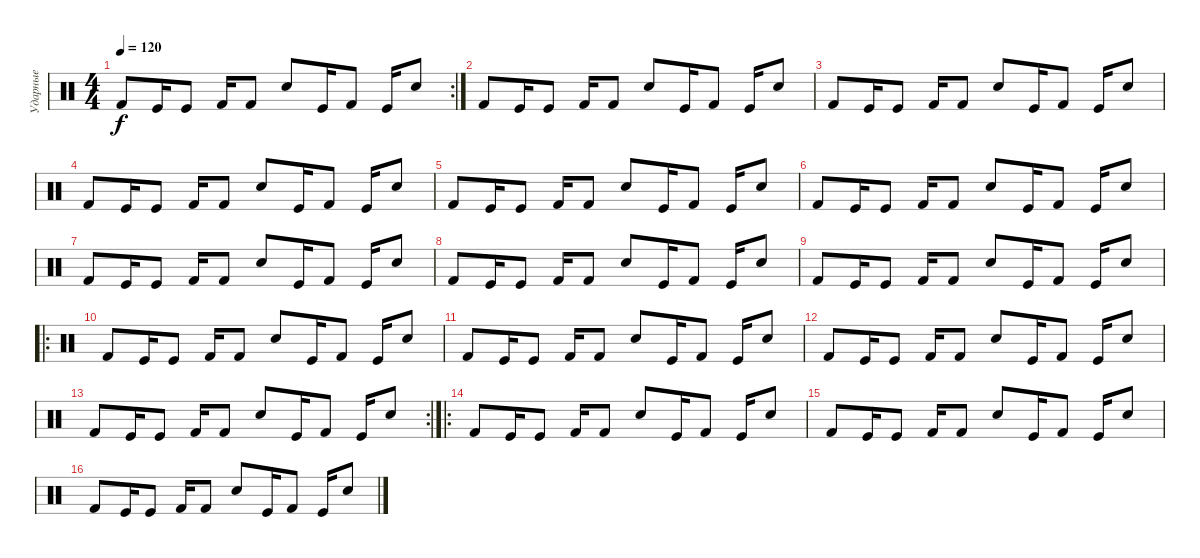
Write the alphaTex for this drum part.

\track ("Ударные" "Ударные") {instrument percussion}
\staff {score}
\articulation defaults
\rc 2
\ts (4 4)
\tempo 120
\clef neutral
\ks c "Kick (hit) 2".8{dy f} "Kick (hit)".16 "Kick (hit)".8 "Kick (hit) 2".16 "Kick (hit) 2".8 "Hand Clap (hit)".8 "Kick (hit)".16 "Kick (hit) 2".8 "Kick (hit)".16 "Snare (hit) 2".8
|
"Kick (hit) 2".8 "Kick (hit)".16 "Kick (hit)".8 "Kick (hit) 2".16 "Kick (hit) 2".8 "Hand Clap (hit)".8 "Kick (hit)".16 "Kick (hit) 2".8 "Kick (hit)".16 "Snare (hit) 2".8 |
"Kick (hit) 2".8 "Kick (hit)".16 "Kick (hit)".8 "Kick (hit) 2".16 "Kick (hit) 2".8 "Hand Clap (hit)".8 "Kick (hit)".16 "Kick (hit) 2".8 "Kick (hit)".16 "Snare (hit) 2".8 |
"Kick (hit) 2".8 "Kick (hit)".16 "Kick (hit)".8 "Kick (hit) 2".16 "Kick (hit) 2".8 "Hand Clap (hit)".8 "Kick (hit)".16 "Kick (hit) 2".8 "Kick (hit)".16 "Snare (hit) 2".8 |
"Kick (hit) 2".8 "Kick (hit)".16 "Kick (hit)".8 "Kick (hit) 2".16 "Kick (hit) 2".8 "Hand Clap (hit)".8 "Kick (hit)".16 "Kick (hit) 2".8 "Kick (hit)".16 "Snare (hit) 2".8 |
"Kick (hit) 2".8 "Kick (hit)".16 "Kick (hit)".8 "Kick (hit) 2".16 "Kick (hit) 2".8 "Hand Clap (hit)".8 "Kick (hit)".16 "Kick (hit) 2".8 "Kick (hit)".16 "Snare (hit) 2".8 |
"Kick (hit) 2".8 "Kick (hit)".16 "Kick (hit)".8 "Kick (hit) 2".16 "Kick (hit) 2".8 "Hand Clap (hit)".8 "Kick (hit)".16 "Kick (hit) 2".8 "Kick (hit)".16 "Snare (hit) 2".8 |
"Kick (hit) 2".8 "Kick (hit)".16 "Kick (hit)".8 "Kick (hit) 2".16 "Kick (hit) 2".8 "Hand Clap (hit)".8 "Kick (hit)".16 "Kick (hit) 2".8 "Kick (hit)".16 "Snare (hit) 2".8 |
"Kick (hit) 2".8 "Kick (hit)".16 "Kick (hit)".8 "Kick (hit) 2".16 "Kick (hit) 2".8 "Hand Clap (hit)".8 "Kick (hit)".16 "Kick (hit) 2".8 "Kick (hit)".16 "Snare (hit) 2".8 |
\ro "Kick (hit) 2".8 "Kick (hit)".16 "Kick (hit)".8 "Kick (hit) 2".16 "Kick (hit) 2".8 "Hand Clap (hit)".8 "Kick (hit)".16 "Kick (hit) 2".8 "Kick (hit)".16 "Snare (hit) 2".8
|
"Kick (hit) 2".8 "Kick (hit)".16 "Kick (hit)".8 "Kick (hit) 2".16 "Kick (hit) 2".8 "Hand Clap (hit)".8 "Kick (hit)".16 "Kick (hit) 2".8 "Kick (hit)".16 "Snare (hit) 2".8 |
"Kick (hit) 2".8 "Kick (hit)".16 "Kick (hit)".8 "Kick (hit) 2".16 "Kick (hit) 2".8 "Hand Clap (hit)".8 "Kick (hit)".16 "Kick (hit) 2".8 "Kick (hit)".16 "Snare (hit) 2".8 |
\rc 2 "Kick (hit) 2".8 "Kick (hit)".16 "Kick (hit)".8 "Kick (hit) 2".16 "Kick (hit) 2".8 "Hand Clap (hit)".8 "Kick (hit)".16 "Kick (hit) 2".8 "Kick (hit)".16 "Snare (hit) 2".8
|
\ro "Kick (hit) 2".8 "Kick (hit)".16 "Kick (hit)".8 "Kick (hit) 2".16 "Kick (hit) 2".8 "Hand Clap (hit)".8 "Kick (hit)".16 "Kick (hit) 2".8 "Kick (hit)".16 "Snare (hit) 2".8
|
"Kick (hit) 2".8 "Kick (hit)".16 "Kick (hit)".8 "Kick (hit) 2".16 "Kick (hit) 2".8 "Hand Clap (hit)".8 "Kick (hit)".16 "Kick (hit) 2".8 "Kick (hit)".16 "Snare (hit) 2".8 |
"Kick (hit) 2".8 "Kick (hit)".16 "Kick (hit)".8 "Kick (hit) 2".16 "Kick (hit) 2".8 "Hand Clap (hit)".8 "Kick (hit)".16 "Kick (hit) 2".8 "Kick (hit)".16 "Snare (hit) 2".8
